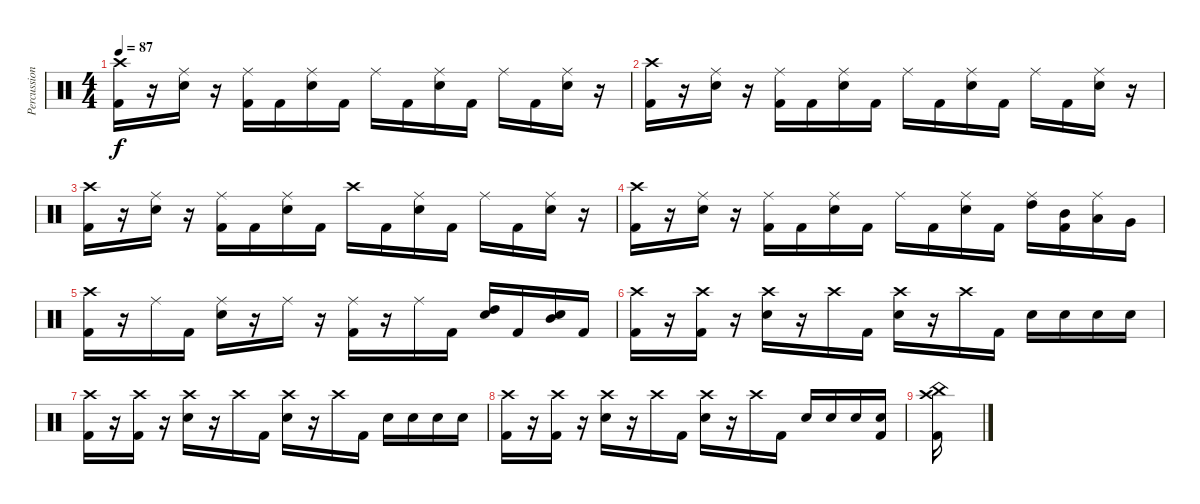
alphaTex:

\track ("Percussion" "Percussion") {instrument percussion}
\staff {score}
\articulation defaults
\ts (4 4)
\tempo 87
\clef neutral
\ks c
("Kick (hit) 2" "Crash high (hit)").16{dy f} r.16 ("Electric Snare (hit)" "Ride (middle)").16 r.16 ("Kick (hit) 2" "Ride (middle)").16 "Kick (hit) 2".16 ("Electric Snare (hit)" "Ride (middle)").16 "Kick (hit) 2".16 "Ride (middle)".16 "Kick (hit) 2".16 ("Electric Snare (hit)" "Ride (middle)").16 "Kick (hit) 2".16 "Ride (middle)".16 "Kick (hit) 2".16 ("Electric Snare (hit)" "Ride (middle)").16 r.16 |
("Kick (hit) 2" "Crash high (hit)").16 r.16 ("Electric Snare (hit)" "Ride (middle)").16 r.16 ("Kick (hit) 2" "Ride (middle)").16 "Kick (hit) 2".16 ("Electric Snare (hit)" "Ride (middle)").16 "Kick (hit) 2".16 "Ride (middle)".16 "Kick (hit) 2".16 ("Electric Snare (hit)" "Ride (middle)").16 "Kick (hit) 2".16 "Ride (middle)".16 "Kick (hit) 2".16 ("Electric Snare (hit)" "Ride (middle)").16 r.16 |
("Kick (hit) 2" "Crash high (hit)").16 r.16 ("Electric Snare (hit)" "Ride (middle)").16 r.16 ("Kick (hit) 2" "Ride (middle)").16 "Kick (hit) 2".16 ("Electric Snare (hit)" "Ride (middle)").16 "Kick (hit) 2".16 "Crash high (hit)".16 "Kick (hit) 2".16 ("Electric Snare (hit)" "Ride (middle)").16 "Kick (hit) 2".16 "Ride (middle)".16 "Kick (hit) 2".16 ("Electric Snare (hit)" "Ride (middle)").16 r.16 |
("Kick (hit) 2" "Crash high (hit)").16 r.16 ("Electric Snare (hit)" "Ride (middle)").16 r.16 ("Kick (hit) 2" "Ride (middle)").16 "Kick (hit) 2".16 ("Electric Snare (hit)" "Ride (middle)").16 "Kick (hit) 2".16 "Ride (middle)".16 "Kick (hit) 2".16 ("Electric Snare (hit)" "Ride (middle)").16 "Kick (hit) 2".16 ("High Tom (hit)" "Ride (middle)").16 ("Kick (hit) 2" "Mid Tom (hit)").16 ("Low Tom (hit)" "Ride (middle)").16 "Very Low Tom (hit)".16 |
("Kick (hit) 2" "Crash high (hit)").16 r.16 "Ride (middle)".16 "Kick (hit) 2".16 ("Electric Snare (hit)" "Ride (middle)").16 r.16 "Ride (middle)".16 r.16 ("Kick (hit) 2" "Ride (middle)").16 r.16 "Ride (middle)".16 "Kick (hit) 2".16 ("Electric Snare (hit)" "High Tom (hit)").16 "Kick (hit) 2".16 ("Electric Snare (hit)" "Mid Tom (hit)").16 "Kick (hit) 2".16 |
("Kick (hit) 2" "Crash high (hit)").16 r.16 ("Kick (hit) 2" "Crash high (hit)").16 r.16 ("Electric Snare (hit)" "Crash high (hit)").16 r.16 "Crash high (hit)".16 "Kick (hit) 2".16 ("Electric Snare (hit)" "Crash high (hit)").16 r.16 "Crash high (hit)".16 "Kick (hit) 2".16 "Electric Snare (hit)".16 "Electric Snare (hit)".16 "Electric Snare (hit)".16 "Electric Snare (hit)".16 |
("Kick (hit) 2" "Crash high (hit)").16 r.16 ("Kick (hit) 2" "Crash high (hit)").16 r.16 ("Electric Snare (hit)" "Crash high (hit)").16 r.16 "Crash high (hit)".16 "Kick (hit) 2".16 ("Electric Snare (hit)" "Crash high (hit)").16 r.16 "Crash high (hit)".16 "Kick (hit) 2".16 "Electric Snare (hit)".16 "Electric Snare (hit)".16 "Electric Snare (hit)".16 "Electric Snare (hit)".16 |
("Kick (hit) 2" "Crash high (hit)").16 r.16 ("Kick (hit) 2" "Crash high (hit)").16 r.16 ("Electric Snare (hit)" "Crash high (hit)").16 r.16 "Crash high (hit)".16 "Kick (hit) 2".16 ("Electric Snare (hit)" "Crash high (hit)").16 r.16 "Crash high (hit)".16 "Kick (hit) 2".16 "Electric Snare (hit)".16 "Electric Snare (hit)".16 "Electric Snare (hit)".16 ("Kick (hit) 2" "Electric Snare (hit)").16 |
("Kick (hit) 2" "China (hit)" "Crash high (hit)").16
